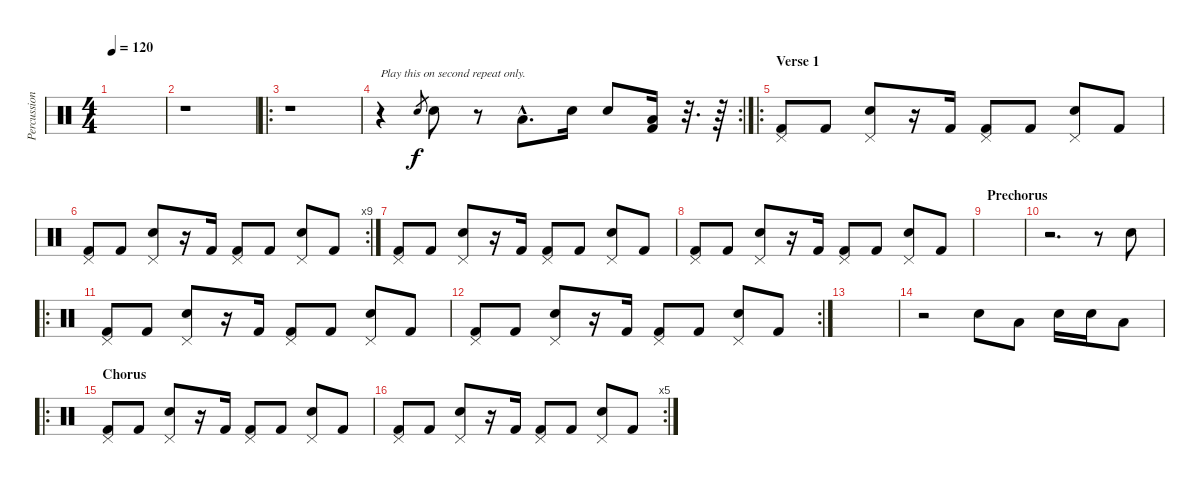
\track ("Percussion" "Percussion") {instrument percussion}
\staff {score}
\articulation defaults
\ts (4 4)
\tempo 120
\clef neutral
\ks c
|
r.1{volume 0} |
\ro
r.1 |
\rc 2
r.4{txt "Play this on second repeat only."} "Electric Snare (hit)".8{gr} "Electric Snare (hit)".8 r.8 "Low Floor Tom (hit)"{hac}.8{d} "Electric Snare (hit)".16 "Electric Snare (hit)".8 ("Low Floor Tom (hit)" "Kick (hit) 2").16 r.32{d} r.64{volume 16} |
\ro
\section ("" "Verse 1")
("Pedal Hi-Hat (hit)" "Kick (hit) 2").8 "Kick (hit) 2".8 ("Pedal Hi-Hat (hit)" "Electric Snare (hit)").8 r.16 "Kick (hit) 2".16 ("Pedal Hi-Hat (hit)" "Kick (hit) 2").8 "Kick (hit) 2".8 ("Pedal Hi-Hat (hit)" "Electric Snare (hit)").8 "Kick (hit) 2".8 |
\rc 9
("Pedal Hi-Hat (hit)" "Kick (hit) 2").8 "Kick (hit) 2".8 ("Pedal Hi-Hat (hit)" "Electric Snare (hit)").8 r.16 "Kick (hit) 2".16 ("Pedal Hi-Hat (hit)" "Kick (hit) 2").8 "Kick (hit) 2".8 ("Pedal Hi-Hat (hit)" "Electric Snare (hit)").8 "Kick (hit) 2".8 |
("Pedal Hi-Hat (hit)" "Kick (hit) 2").8 "Kick (hit) 2".8 ("Pedal Hi-Hat (hit)" "Electric Snare (hit)").8 r.16 "Kick (hit) 2".16 ("Pedal Hi-Hat (hit)" "Kick (hit) 2").8 "Kick (hit) 2".8 ("Pedal Hi-Hat (hit)" "Electric Snare (hit)").8 "Kick (hit) 2".8 |
("Pedal Hi-Hat (hit)" "Kick (hit) 2").8 "Kick (hit) 2".8 ("Pedal Hi-Hat (hit)" "Electric Snare (hit)").8 r.16 "Kick (hit) 2".16 ("Pedal Hi-Hat (hit)" "Kick (hit) 2").8 "Kick (hit) 2".8 ("Pedal Hi-Hat (hit)" "Electric Snare (hit)").8 "Kick (hit) 2".8 |
\section ("" "Prechorus")
|
r.2{d} r.8 "Electric Snare (hit)".8 |
\ro
("Pedal Hi-Hat (hit)" "Kick (hit) 2").8 "Kick (hit) 2".8 ("Pedal Hi-Hat (hit)" "Electric Snare (hit)").8 r.16 "Kick (hit) 2".16 ("Pedal Hi-Hat (hit)" "Kick (hit) 2").8 "Kick (hit) 2".8 ("Pedal Hi-Hat (hit)" "Electric Snare (hit)").8 "Kick (hit) 2".8 |
\rc 2
("Pedal Hi-Hat (hit)" "Kick (hit) 2").8 "Kick (hit) 2".8 ("Pedal Hi-Hat (hit)" "Electric Snare (hit)").8 r.16 "Kick (hit) 2".16 ("Pedal Hi-Hat (hit)" "Kick (hit) 2").8 "Kick (hit) 2".8 ("Pedal Hi-Hat (hit)" "Electric Snare (hit)").8 "Kick (hit) 2".8 |
|
r.2 "Electric Snare (hit)".8 "Low Floor Tom (hit)".8 "Electric Snare (hit)".16 "Electric Snare (hit)".16 "Low Floor Tom (hit)".8 |
\ro
\section ("" "Chorus")
("Pedal Hi-Hat (hit)" "Kick (hit) 2").8 "Kick (hit) 2".8 ("Pedal Hi-Hat (hit)" "Electric Snare (hit)").8 r.16 "Kick (hit) 2".16 ("Pedal Hi-Hat (hit)" "Kick (hit) 2").8 "Kick (hit) 2".8 ("Pedal Hi-Hat (hit)" "Electric Snare (hit)").8 "Kick (hit) 2".8 |
\rc 5
("Pedal Hi-Hat (hit)" "Kick (hit) 2").8 "Kick (hit) 2".8 ("Pedal Hi-Hat (hit)" "Electric Snare (hit)").8 r.16 "Kick (hit) 2".16 ("Pedal Hi-Hat (hit)" "Kick (hit) 2").8 "Kick (hit) 2".8 ("Pedal Hi-Hat (hit)" "Electric Snare (hit)").8 "Kick (hit) 2".8
